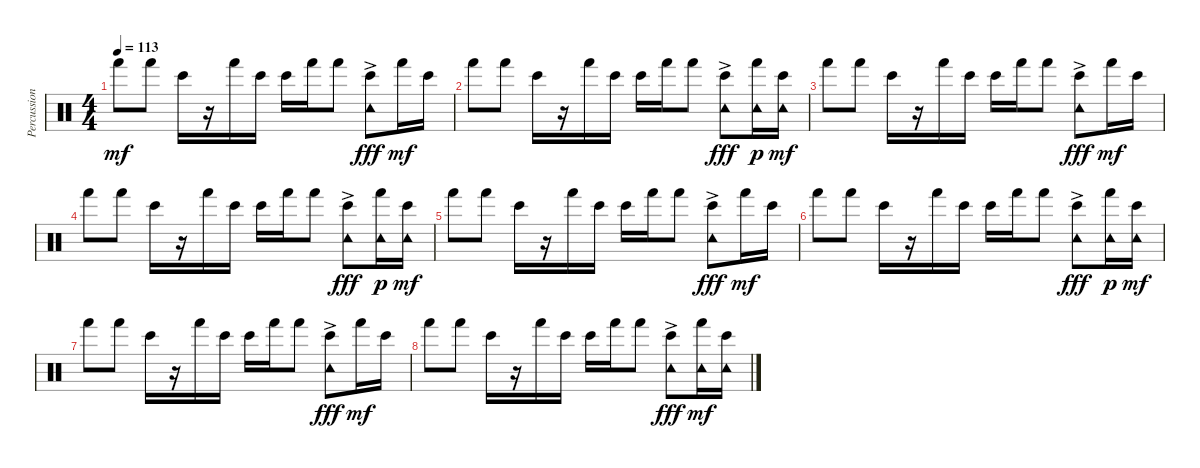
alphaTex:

\track ("Percussion" "Percussion") {instrument percussion}
\staff {score}
\articulation defaults
\ts (4 4)
\tempo 113
\clef neutral
\ks c "Hand (hit)".8{dy mf} "Hand (hit)".8 "Bongo High (hit)".16
r.16 "Hand (hit)".16 "Bongo High (hit)".16 "Bongo High (hit)".16 "Hand (hit)".16 "Hand (hit)".8 ("Bongo High (hit)" "Tambourine (hit)"{ac}).8{dy fff} "Hand (hit)".16{dy mf} "Bongo High (hit)".16 |
"Hand (hit)".8 "Hand (hit)".8 "Bongo High (hit)".16 r.16 "Hand (hit)".16 "Bongo High (hit)".16 "Bongo High (hit)".16 "Hand (hit)".16 "Hand (hit)".8 ("Bongo High (hit)" "Tambourine (hit)"{ac}).8{dy fff} ("Hand (hit)" "Tambourine (hit)").16{dy p} ("Bongo High (hit)" "Tambourine (hit)").16{dy mf} |
"Hand (hit)".8 "Hand (hit)".8 "Bongo High (hit)".16 r.16 "Hand (hit)".16 "Bongo High (hit)".16 "Bongo High (hit)".16 "Hand (hit)".16 "Hand (hit)".8 ("Bongo High (hit)" "Tambourine (hit)"{ac}).8{dy fff} "Hand (hit)".16{dy mf} "Bongo High (hit)".16 |
"Hand (hit)".8 "Hand (hit)".8 "Bongo High (hit)".16 r.16 "Hand (hit)".16 "Bongo High (hit)".16 "Bongo High (hit)".16 "Hand (hit)".16 "Hand (hit)".8 ("Bongo High (hit)" "Tambourine (hit)"{ac}).8{dy fff} ("Hand (hit)" "Tambourine (hit)").16{dy p} ("Bongo High (hit)" "Tambourine (hit)").16{dy mf} |
"Hand (hit)".8 "Hand (hit)".8 "Bongo High (hit)".16 r.16 "Hand (hit)".16 "Bongo High (hit)".16 "Bongo High (hit)".16 "Hand (hit)".16 "Hand (hit)".8 ("Bongo High (hit)" "Tambourine (hit)"{ac}).8{dy fff} "Hand (hit)".16{dy mf} "Bongo High (hit)".16 |
"Hand (hit)".8 "Hand (hit)".8 "Bongo High (hit)".16 r.16 "Hand (hit)".16 "Bongo High (hit)".16 "Bongo High (hit)".16 "Hand (hit)".16 "Hand (hit)".8 ("Bongo High (hit)" "Tambourine (hit)"{ac}).8{dy fff} ("Hand (hit)" "Tambourine (hit)").16{dy p} ("Bongo High (hit)" "Tambourine (hit)").16{dy mf} |
"Hand (hit)".8 "Hand (hit)".8 "Bongo High (hit)".16 r.16 "Hand (hit)".16 "Bongo High (hit)".16 "Bongo High (hit)".16 "Hand (hit)".16 "Hand (hit)".8 ("Bongo High (hit)" "Tambourine (hit)"{ac}).8{dy fff} "Hand (hit)".16{dy mf} "Bongo High (hit)".16 |
"Hand (hit)".8 "Hand (hit)".8 "Bongo High (hit)".16 r.16 "Hand (hit)".16 "Bongo High (hit)".16 "Bongo High (hit)".16 "Hand (hit)".16 "Hand (hit)".8 ("Bongo High (hit)" "Tambourine (hit)"{ac}).8{dy fff} ("Hand (hit)" "Tambourine (hit)").16{dy mf} ("Bongo High (hit)" "Tambourine (hit)").16
